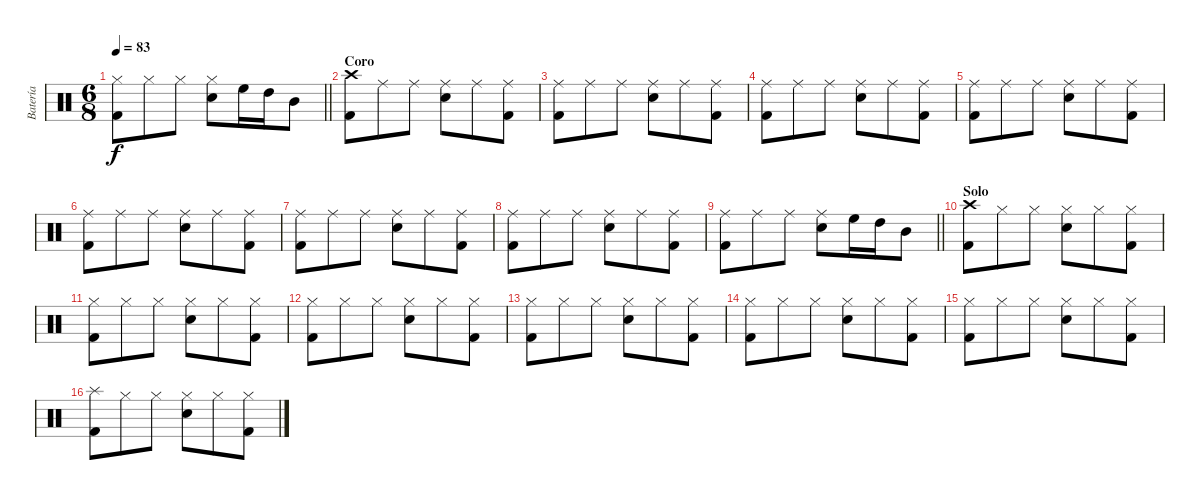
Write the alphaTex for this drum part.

\track ("Batería" "Batería") {instrument percussion}
\staff {score}
\articulation defaults
\ts (6 8)
\tempo 83
\clef neutral
\barLineRight lightlight
\ks c
("Hi-Hat (closed)" "Kick (hit) 2").8{dy f} "Hi-Hat (closed)".8 "Hi-Hat (closed)".8 ("Hi-Hat (closed)" "Electric Snare (hit)").8 "High Floor Tom (hit)".16 "High Tom (hit)".16 "Mid Tom (hit)".8 |
\section ("" "Coro")
("Crash high (hit)" "Kick (hit) 2").8 "Ride (middle)".8 "Ride (middle)".8 ("Ride (middle)" "Electric Snare (hit)").8 "Ride (middle)".8 ("Ride (middle)" "Kick (hit) 2").8 |
("Ride (middle)" "Kick (hit) 2").8 "Ride (middle)".8 "Ride (middle)".8 ("Ride (middle)" "Electric Snare (hit)").8 "Ride (middle)".8 ("Ride (middle)" "Kick (hit) 2").8 |
("Ride (middle)" "Kick (hit) 2").8 "Ride (middle)".8 "Ride (middle)".8 ("Ride (middle)" "Electric Snare (hit)").8 "Ride (middle)".8 ("Ride (middle)" "Kick (hit) 2").8 |
("Ride (middle)" "Kick (hit) 2").8 "Ride (middle)".8 "Ride (middle)".8 ("Ride (middle)" "Electric Snare (hit)").8 "Ride (middle)".8 ("Ride (middle)" "Kick (hit) 2").8 |
("Ride (middle)" "Kick (hit) 2").8 "Ride (middle)".8 "Ride (middle)".8 ("Ride (middle)" "Electric Snare (hit)").8 "Ride (middle)".8 ("Ride (middle)" "Kick (hit) 2").8 |
("Ride (middle)" "Kick (hit) 2").8 "Ride (middle)".8 "Ride (middle)".8 ("Ride (middle)" "Electric Snare (hit)").8 "Ride (middle)".8 ("Ride (middle)" "Kick (hit) 2").8 |
("Ride (middle)" "Kick (hit) 2").8 "Ride (middle)".8 "Ride (middle)".8 ("Ride (middle)" "Electric Snare (hit)").8 "Ride (middle)".8 ("Ride (middle)" "Kick (hit) 2").8 |
\barLineRight lightlight
("Ride (middle)" "Kick (hit) 2").8 "Ride (middle)".8 "Ride (middle)".8 ("Ride (middle)" "Electric Snare (hit)").8 "High Floor Tom (hit)".16 "High Tom (hit)".16 "Mid Tom (hit)".8 |
\section ("" "Solo")
("Crash high (hit)" "Kick (hit) 2").8 "Hi-Hat (closed)".8 "Hi-Hat (closed)".8 ("Hi-Hat (closed)" "Electric Snare (hit)").8 "Hi-Hat (closed)".8 ("Hi-Hat (closed)" "Kick (hit) 2").8 |
("Hi-Hat (closed)" "Kick (hit) 2").8 "Hi-Hat (closed)".8 "Hi-Hat (closed)".8 ("Hi-Hat (closed)" "Electric Snare (hit)").8 "Hi-Hat (closed)".8 ("Hi-Hat (closed)" "Kick (hit) 2").8 |
("Hi-Hat (closed)" "Kick (hit) 2").8 "Hi-Hat (closed)".8 "Hi-Hat (closed)".8 ("Hi-Hat (closed)" "Electric Snare (hit)").8 "Hi-Hat (closed)".8 ("Hi-Hat (closed)" "Kick (hit) 2").8 |
("Hi-Hat (closed)" "Kick (hit) 2").8 "Hi-Hat (closed)".8 "Hi-Hat (closed)".8 ("Hi-Hat (closed)" "Electric Snare (hit)").8 "Hi-Hat (closed)".8 ("Hi-Hat (closed)" "Kick (hit) 2").8 |
("Hi-Hat (closed)" "Kick (hit) 2").8 "Hi-Hat (closed)".8 "Hi-Hat (closed)".8 ("Hi-Hat (closed)" "Electric Snare (hit)").8 "Hi-Hat (closed)".8 ("Hi-Hat (closed)" "Kick (hit) 2").8 |
("Hi-Hat (closed)" "Kick (hit) 2").8 "Hi-Hat (closed)".8 "Hi-Hat (closed)".8 ("Hi-Hat (closed)" "Electric Snare (hit)").8 "Hi-Hat (closed)".8 ("Hi-Hat (closed)" "Kick (hit) 2").8 |
("Splash (hit)" "Kick (hit) 2").8 "Hi-Hat (closed)".8 "Hi-Hat (closed)".8 ("Hi-Hat (closed)" "Electric Snare (hit)").8 "Hi-Hat (closed)".8 ("Hi-Hat (closed)" "Kick (hit) 2").8
